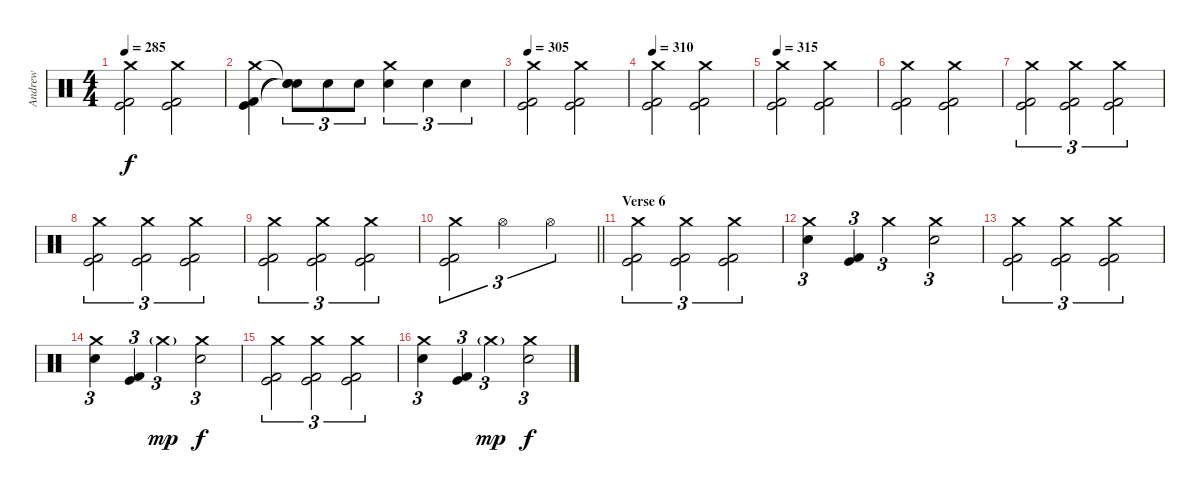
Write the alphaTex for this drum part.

\track ("Andrew" "Andrew") {instrument percussion}
\staff {score}
\articulation defaults
\ts (4 4)
\tempo 285
\clef neutral
\ks c
("Crash medium (hit)" "Kick (hit)" "Kick (hit) 2").2{dy f} ("Crash medium (hit)" "Kick (hit)" "Kick (hit) 2").2 |
("Crash medium (hit)" "Kick (hit)" "Kick (hit) 2").4 ("Snare (hit)"{t} "Snare (hit)"{t} "Snare (hit)"{t}).8{tu (3 2)} "Snare (hit) 2".8{tu (3 2)} "Snare (hit) 2".8{tu (3 2)} ("Crash medium (hit)" "Snare (hit) 2").4{tu (3 2)} "Snare (hit) 2".4{tu (3 2)} "Snare (hit) 2".4{tu (3 2)} |
\tempo 305
("Crash medium (hit)" "Kick (hit)" "Kick (hit) 2").2 ("Crash medium (hit)" "Kick (hit)" "Kick (hit) 2").2 |
\tempo 310
("Crash medium (hit)" "Kick (hit)" "Kick (hit) 2").2 ("Crash medium (hit)" "Kick (hit)" "Kick (hit) 2").2 |
\tempo 315
("Crash medium (hit)" "Kick (hit)" "Kick (hit) 2").2 ("Crash medium (hit)" "Kick (hit)" "Kick (hit) 2").2 |
("Crash medium (hit)" "Kick (hit)" "Kick (hit) 2").2 ("Crash medium (hit)" "Kick (hit)" "Kick (hit) 2").2 |
("Crash medium (hit)" "Kick (hit)" "Kick (hit) 2").2{tu (3 2)} ("Crash medium (hit)" "Kick (hit)" "Kick (hit) 2").2{tu (3 2)} ("Crash medium (hit)" "Kick (hit)" "Kick (hit) 2").2{tu (3 2)} |
("Crash medium (hit)" "Kick (hit)" "Kick (hit) 2").2{tu (3 2)} ("Crash medium (hit)" "Kick (hit)" "Kick (hit) 2").2{tu (3 2)} ("Crash medium (hit)" "Kick (hit)" "Kick (hit) 2").2{tu (3 2)} |
("Crash medium (hit)" "Kick (hit)" "Kick (hit) 2").2{tu (3 2)} ("Crash medium (hit)" "Kick (hit)" "Kick (hit) 2").2{tu (3 2)} ("Crash medium (hit)" "Kick (hit)" "Kick (hit) 2").2{tu (3 2)} |
\barLineRight lightlight
("Crash medium (hit)" "Kick (hit)" "Kick (hit) 2").2{tu (3 2)} "Hi-Hat (open)".2{tu (3 2)} "Hi-Hat (open)".2{tu (3 2)} |
\section ("" "Verse 6")
("Crash medium (hit)" "Kick (hit)" "Kick (hit) 2").2{tu (3 2)} ("Crash medium (hit)" "Kick (hit)" "Kick (hit) 2").2{tu (3 2)} ("Crash medium (hit)" "Kick (hit)" "Kick (hit) 2").2{tu (3 2)} |
("Crash medium (hit)" "Snare (hit) 2").4{tu (3 2)} ("Kick (hit)" "Kick (hit) 2").4{tu (3 2)} "Crash medium (hit)".2{tu (3 2)} ("Crash medium (hit)" "Snare (hit) 2").2{tu (3 2)} |
("Crash medium (hit)" "Kick (hit)" "Kick (hit) 2").2{tu (3 2)} ("Crash medium (hit)" "Kick (hit)" "Kick (hit) 2").2{tu (3 2)} ("Crash medium (hit)" "Kick (hit)" "Kick (hit) 2").2{tu (3 2)} |
("Crash medium (hit)" "Snare (hit) 2").4{tu (3 2)} ("Kick (hit)" "Kick (hit) 2").4{tu (3 2)} "Crash medium (hit)"{g}.2{tu (3 2) dy mp} ("Crash medium (hit)" "Snare (hit) 2").2{tu (3 2) dy f} |
("Crash medium (hit)" "Kick (hit)" "Kick (hit) 2").2{tu (3 2)} ("Crash medium (hit)" "Kick (hit)" "Kick (hit) 2").2{tu (3 2)} ("Crash medium (hit)" "Kick (hit)" "Kick (hit) 2").2{tu (3 2)} |
("Crash medium (hit)" "Snare (hit) 2").4{tu (3 2)} ("Kick (hit)" "Kick (hit) 2").4{tu (3 2)} "Crash medium (hit)"{g}.2{tu (3 2) dy mp} ("Crash medium (hit)" "Snare (hit) 2").2{tu (3 2) dy f}
